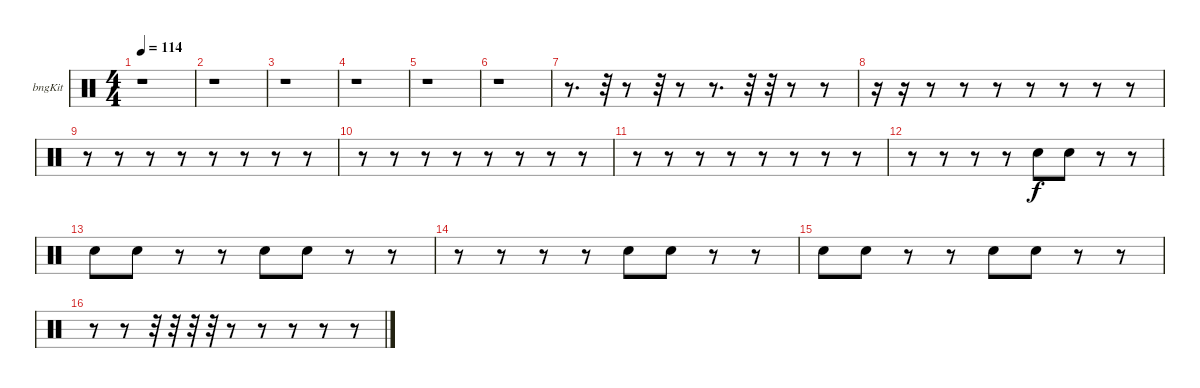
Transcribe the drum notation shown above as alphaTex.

\bracketExtendMode groupsimilarinstruments
\firstSystemTrackNameOrientation horizontal
\otherSystemsTrackNameOrientation horizontal
\track ("Bongos" "bngKit") {instrument percussion}
\staff {score}
\articulation defaults
\ts (4 4)
\tempo 114
\clef neutral
\ks c
r.1{dy f} |
r.1 |
r.1 |
r.1 |
r.1 |
r.1 |
r.8{d} r.32 r.8 r.32 r.8 r.8{d} r.32 r.32 r.8 r.8 |
r.16 r.16 r.8 r.8 r.8 r.8 r.8 r.8 r.8 |
r.8 r.8 r.8 r.8 r.8 r.8 r.8 r.8 |
r.8 r.8 r.8 r.8 r.8 r.8 r.8 r.8 |
r.8 r.8 r.8 r.8 r.8 r.8 r.8 r.8 |
r.8 r.8 r.8 r.8 "Snare (hit) 2".8 "Snare (hit) 2".8 r.8 r.8 |
"Snare (hit) 2".8 "Snare (hit) 2".8 r.8 r.8 "Snare (hit) 2".8 "Snare (hit) 2".8 r.8 r.8 |
r.8 r.8 r.8 r.8 "Snare (hit) 2".8 "Snare (hit) 2".8 r.8 r.8 |
"Snare (hit) 2".8 "Snare (hit) 2".8 r.8 r.8 "Snare (hit) 2".8 "Snare (hit) 2".8 r.8 r.8 |
r.8 r.8 r.32 r.32 r.32 r.32 r.8 r.8 r.8 r.8 r.8
